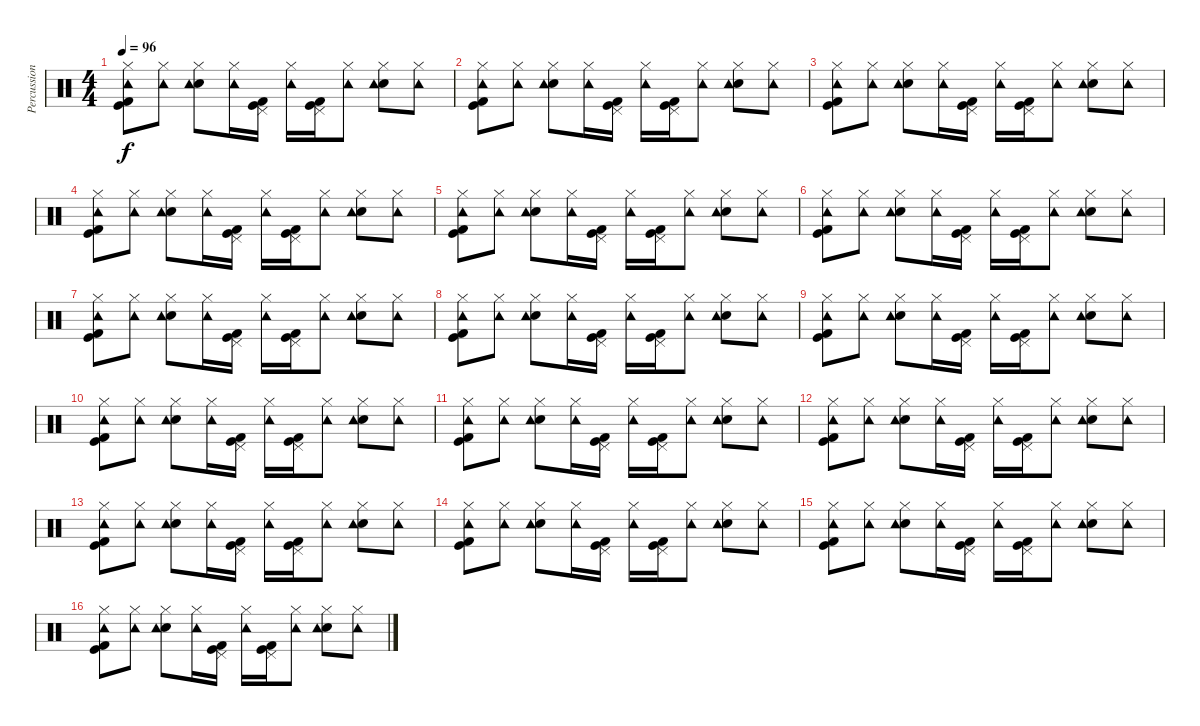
\track ("Percussions" "Percussion") {instrument percussion}
\staff {score}
\articulation defaults
\ts (4 4)
\tempo 96
\clef neutral
\ks c
("Kick (hit) 2" "Hi-Hat (closed)" "Tambourine (hit)" "Kick (hit)").8{dy f} ("Hi-Hat (closed)" "Tambourine (hit)").8 ("Hi-Hat (closed)" "Snare (hit) 2" "Tambourine (hit)").8 ("Hi-Hat (closed)" "Tambourine (hit)").16 ("Kick (hit) 2" "Pedal Hi-Hat (hit)" "Kick (hit)").16 ("Hi-Hat (closed)" "Tambourine (hit)").16 ("Kick (hit) 2" "Pedal Hi-Hat (hit)" "Kick (hit)").16 ("Hi-Hat (closed)" "Tambourine (hit)").8 ("Hi-Hat (closed)" "Snare (hit) 2" "Tambourine (hit)").8 ("Hi-Hat (closed)" "Tambourine (hit)").8 |
("Kick (hit) 2" "Hi-Hat (closed)" "Tambourine (hit)" "Kick (hit)").8 ("Hi-Hat (closed)" "Tambourine (hit)").8 ("Hi-Hat (closed)" "Snare (hit) 2" "Tambourine (hit)").8 ("Hi-Hat (closed)" "Tambourine (hit)").16 ("Kick (hit) 2" "Pedal Hi-Hat (hit)" "Kick (hit)").16 ("Hi-Hat (closed)" "Tambourine (hit)").16 ("Kick (hit) 2" "Pedal Hi-Hat (hit)" "Kick (hit)").16 ("Hi-Hat (closed)" "Tambourine (hit)").8 ("Hi-Hat (closed)" "Snare (hit) 2" "Tambourine (hit)").8 ("Hi-Hat (closed)" "Tambourine (hit)").8 |
("Kick (hit) 2" "Hi-Hat (closed)" "Tambourine (hit)" "Kick (hit)").8 ("Hi-Hat (closed)" "Tambourine (hit)").8 ("Hi-Hat (closed)" "Snare (hit) 2" "Tambourine (hit)").8 ("Hi-Hat (closed)" "Tambourine (hit)").16 ("Kick (hit) 2" "Pedal Hi-Hat (hit)" "Kick (hit)").16 ("Hi-Hat (closed)" "Tambourine (hit)").16 ("Kick (hit) 2" "Pedal Hi-Hat (hit)" "Kick (hit)").16 ("Hi-Hat (closed)" "Tambourine (hit)").8 ("Hi-Hat (closed)" "Snare (hit) 2" "Tambourine (hit)").8 ("Hi-Hat (closed)" "Tambourine (hit)").8 |
("Kick (hit) 2" "Hi-Hat (closed)" "Tambourine (hit)" "Kick (hit)").8 ("Hi-Hat (closed)" "Tambourine (hit)").8 ("Hi-Hat (closed)" "Snare (hit) 2" "Tambourine (hit)").8 ("Hi-Hat (closed)" "Tambourine (hit)").16 ("Kick (hit) 2" "Pedal Hi-Hat (hit)" "Kick (hit)").16 ("Hi-Hat (closed)" "Tambourine (hit)").16 ("Kick (hit) 2" "Pedal Hi-Hat (hit)" "Kick (hit)").16 ("Hi-Hat (closed)" "Tambourine (hit)").8 ("Hi-Hat (closed)" "Snare (hit) 2" "Tambourine (hit)").8 ("Hi-Hat (closed)" "Tambourine (hit)").8 |
("Kick (hit) 2" "Hi-Hat (closed)" "Tambourine (hit)" "Kick (hit)").8 ("Hi-Hat (closed)" "Tambourine (hit)").8 ("Hi-Hat (closed)" "Snare (hit) 2" "Tambourine (hit)").8 ("Hi-Hat (closed)" "Tambourine (hit)").16 ("Kick (hit) 2" "Pedal Hi-Hat (hit)" "Kick (hit)").16 ("Hi-Hat (closed)" "Tambourine (hit)").16 ("Kick (hit) 2" "Pedal Hi-Hat (hit)" "Kick (hit)").16 ("Hi-Hat (closed)" "Tambourine (hit)").8 ("Hi-Hat (closed)" "Snare (hit) 2" "Tambourine (hit)").8 ("Hi-Hat (closed)" "Tambourine (hit)").8 |
("Kick (hit) 2" "Hi-Hat (closed)" "Tambourine (hit)" "Kick (hit)").8 ("Hi-Hat (closed)" "Tambourine (hit)").8 ("Hi-Hat (closed)" "Snare (hit) 2" "Tambourine (hit)").8 ("Hi-Hat (closed)" "Tambourine (hit)").16 ("Kick (hit) 2" "Pedal Hi-Hat (hit)" "Kick (hit)").16 ("Hi-Hat (closed)" "Tambourine (hit)").16 ("Kick (hit) 2" "Pedal Hi-Hat (hit)" "Kick (hit)").16 ("Hi-Hat (closed)" "Tambourine (hit)").8 ("Hi-Hat (closed)" "Snare (hit) 2" "Tambourine (hit)").8 ("Hi-Hat (closed)" "Tambourine (hit)").8 |
("Kick (hit) 2" "Hi-Hat (closed)" "Tambourine (hit)" "Kick (hit)").8 ("Hi-Hat (closed)" "Tambourine (hit)").8 ("Hi-Hat (closed)" "Snare (hit) 2" "Tambourine (hit)").8 ("Hi-Hat (closed)" "Tambourine (hit)").16 ("Kick (hit) 2" "Pedal Hi-Hat (hit)" "Kick (hit)").16 ("Hi-Hat (closed)" "Tambourine (hit)").16 ("Kick (hit) 2" "Pedal Hi-Hat (hit)" "Kick (hit)").16 ("Hi-Hat (closed)" "Tambourine (hit)").8 ("Hi-Hat (closed)" "Snare (hit) 2" "Tambourine (hit)").8 ("Hi-Hat (closed)" "Tambourine (hit)").8 |
("Kick (hit) 2" "Hi-Hat (closed)" "Tambourine (hit)" "Kick (hit)").8 ("Hi-Hat (closed)" "Tambourine (hit)").8 ("Hi-Hat (closed)" "Snare (hit) 2" "Tambourine (hit)").8 ("Hi-Hat (closed)" "Tambourine (hit)").16 ("Kick (hit) 2" "Pedal Hi-Hat (hit)" "Kick (hit)").16 ("Hi-Hat (closed)" "Tambourine (hit)").16 ("Kick (hit) 2" "Pedal Hi-Hat (hit)" "Kick (hit)").16 ("Hi-Hat (closed)" "Tambourine (hit)").8 ("Hi-Hat (closed)" "Snare (hit) 2" "Tambourine (hit)").8 ("Hi-Hat (closed)" "Tambourine (hit)").8 |
("Kick (hit) 2" "Hi-Hat (closed)" "Tambourine (hit)" "Kick (hit)").8 ("Hi-Hat (closed)" "Tambourine (hit)").8 ("Hi-Hat (closed)" "Snare (hit) 2" "Tambourine (hit)").8 ("Hi-Hat (closed)" "Tambourine (hit)").16 ("Kick (hit) 2" "Pedal Hi-Hat (hit)" "Kick (hit)").16 ("Hi-Hat (closed)" "Tambourine (hit)").16 ("Kick (hit) 2" "Pedal Hi-Hat (hit)" "Kick (hit)").16 ("Hi-Hat (closed)" "Tambourine (hit)").8 ("Hi-Hat (closed)" "Snare (hit) 2" "Tambourine (hit)").8 ("Hi-Hat (closed)" "Tambourine (hit)").8 |
("Kick (hit) 2" "Hi-Hat (closed)" "Tambourine (hit)" "Kick (hit)").8 ("Hi-Hat (closed)" "Tambourine (hit)").8 ("Hi-Hat (closed)" "Snare (hit) 2" "Tambourine (hit)").8 ("Hi-Hat (closed)" "Tambourine (hit)").16 ("Kick (hit) 2" "Pedal Hi-Hat (hit)" "Kick (hit)").16 ("Hi-Hat (closed)" "Tambourine (hit)").16 ("Kick (hit) 2" "Pedal Hi-Hat (hit)" "Kick (hit)").16 ("Hi-Hat (closed)" "Tambourine (hit)").8 ("Hi-Hat (closed)" "Snare (hit) 2" "Tambourine (hit)").8 ("Hi-Hat (closed)" "Tambourine (hit)").8 |
("Kick (hit) 2" "Hi-Hat (closed)" "Tambourine (hit)" "Kick (hit)").8 ("Hi-Hat (closed)" "Tambourine (hit)").8 ("Hi-Hat (closed)" "Snare (hit) 2" "Tambourine (hit)").8 ("Hi-Hat (closed)" "Tambourine (hit)").16 ("Kick (hit) 2" "Pedal Hi-Hat (hit)" "Kick (hit)").16 ("Hi-Hat (closed)" "Tambourine (hit)").16 ("Kick (hit) 2" "Pedal Hi-Hat (hit)" "Kick (hit)").16 ("Hi-Hat (closed)" "Tambourine (hit)").8 ("Hi-Hat (closed)" "Snare (hit) 2" "Tambourine (hit)").8 ("Hi-Hat (closed)" "Tambourine (hit)").8 |
("Kick (hit) 2" "Hi-Hat (closed)" "Tambourine (hit)" "Kick (hit)").8 ("Hi-Hat (closed)" "Tambourine (hit)").8 ("Hi-Hat (closed)" "Snare (hit) 2" "Tambourine (hit)").8 ("Hi-Hat (closed)" "Tambourine (hit)").16 ("Kick (hit) 2" "Pedal Hi-Hat (hit)" "Kick (hit)").16 ("Hi-Hat (closed)" "Tambourine (hit)").16 ("Kick (hit) 2" "Pedal Hi-Hat (hit)" "Kick (hit)").16 ("Hi-Hat (closed)" "Tambourine (hit)").8 ("Hi-Hat (closed)" "Snare (hit) 2" "Tambourine (hit)").8 ("Hi-Hat (closed)" "Tambourine (hit)").8 |
("Kick (hit) 2" "Hi-Hat (closed)" "Tambourine (hit)" "Kick (hit)").8 ("Hi-Hat (closed)" "Tambourine (hit)").8 ("Hi-Hat (closed)" "Snare (hit) 2" "Tambourine (hit)").8 ("Hi-Hat (closed)" "Tambourine (hit)").16 ("Kick (hit) 2" "Pedal Hi-Hat (hit)" "Kick (hit)").16 ("Hi-Hat (closed)" "Tambourine (hit)").16 ("Kick (hit) 2" "Pedal Hi-Hat (hit)" "Kick (hit)").16 ("Hi-Hat (closed)" "Tambourine (hit)").8 ("Hi-Hat (closed)" "Snare (hit) 2" "Tambourine (hit)").8 ("Hi-Hat (closed)" "Tambourine (hit)").8 |
("Kick (hit) 2" "Hi-Hat (closed)" "Tambourine (hit)" "Kick (hit)").8 ("Hi-Hat (closed)" "Tambourine (hit)").8 ("Hi-Hat (closed)" "Snare (hit) 2" "Tambourine (hit)").8 ("Hi-Hat (closed)" "Tambourine (hit)").16 ("Kick (hit) 2" "Pedal Hi-Hat (hit)" "Kick (hit)").16 ("Hi-Hat (closed)" "Tambourine (hit)").16 ("Kick (hit) 2" "Pedal Hi-Hat (hit)" "Kick (hit)").16 ("Hi-Hat (closed)" "Tambourine (hit)").8 ("Hi-Hat (closed)" "Snare (hit) 2" "Tambourine (hit)").8 ("Hi-Hat (closed)" "Tambourine (hit)").8 |
("Kick (hit) 2" "Hi-Hat (closed)" "Tambourine (hit)" "Kick (hit)").8 ("Hi-Hat (closed)" "Tambourine (hit)").8 ("Hi-Hat (closed)" "Snare (hit) 2" "Tambourine (hit)").8 ("Hi-Hat (closed)" "Tambourine (hit)").16 ("Kick (hit) 2" "Pedal Hi-Hat (hit)" "Kick (hit)").16 ("Hi-Hat (closed)" "Tambourine (hit)").16 ("Kick (hit) 2" "Pedal Hi-Hat (hit)" "Kick (hit)").16 ("Hi-Hat (closed)" "Tambourine (hit)").8 ("Hi-Hat (closed)" "Snare (hit) 2" "Tambourine (hit)").8 ("Hi-Hat (closed)" "Tambourine (hit)").8 |
("Kick (hit) 2" "Hi-Hat (closed)" "Tambourine (hit)" "Kick (hit)").8 ("Hi-Hat (closed)" "Tambourine (hit)").8 ("Hi-Hat (closed)" "Snare (hit) 2" "Tambourine (hit)").8 ("Hi-Hat (closed)" "Tambourine (hit)").16 ("Kick (hit) 2" "Pedal Hi-Hat (hit)" "Kick (hit)").16 ("Hi-Hat (closed)" "Tambourine (hit)").16 ("Kick (hit) 2" "Pedal Hi-Hat (hit)" "Kick (hit)").16 ("Hi-Hat (closed)" "Tambourine (hit)").8 ("Hi-Hat (closed)" "Snare (hit) 2" "Tambourine (hit)").8 ("Hi-Hat (closed)" "Tambourine (hit)").8
